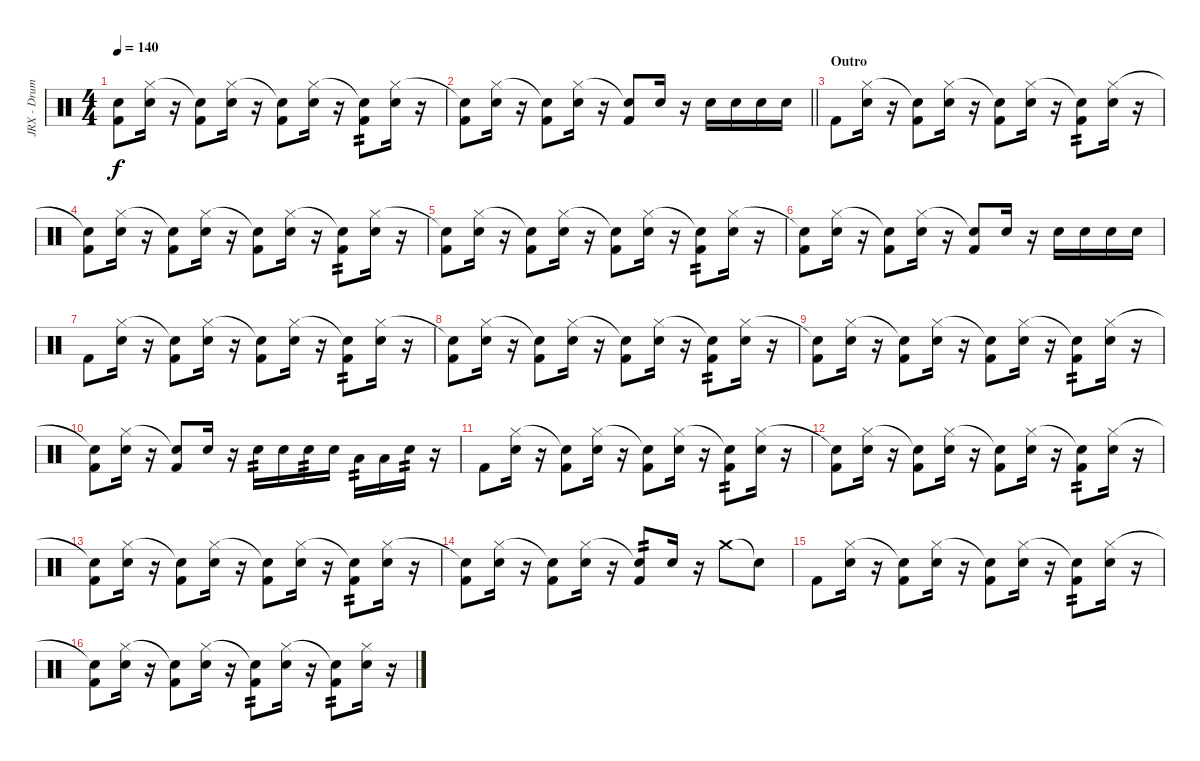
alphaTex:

\track ("JRX - Drum" "JRX - Drum") {instrument percussion}
\staff {score}
\articulation defaults
\ts (4 4)
\tempo 140
\clef neutral
\ks c
("Snare (hit)"{t} "Kick (hit) 2").8{dy f} ("Hi-Hat (closed)" "Electric Snare (hit)").16 r.16 ("Snare (hit)"{t} "Kick (hit) 2").8 ("Hi-Hat (closed)" "Electric Snare (hit)").16 r.16 ("Snare (hit)"{t} "Kick (hit) 2").8 ("Hi-Hat (closed)" "Electric Snare (hit)").16 r.16 ("Snare (hit)"{t} "Kick (hit) 2").8{tp 2} ("Hi-Hat (closed)" "Electric Snare (hit)").16 r.16 |
\barLineRight lightlight
("Snare (hit)"{t} "Kick (hit) 2").8 ("Hi-Hat (closed)" "Electric Snare (hit)").16 r.16 ("Snare (hit)"{t} "Kick (hit) 2").8 ("Hi-Hat (closed)" "Electric Snare (hit)").16 r.16 ("Snare (hit)"{t} "Kick (hit) 2").8 "Electric Snare (hit)".16 r.16 "Electric Snare (hit)".16 "Electric Snare (hit)".16 "Electric Snare (hit)".16 "Electric Snare (hit)".16 |
\section ("" "Outro")
"Kick (hit) 2".8 ("Hi-Hat (closed)" "Electric Snare (hit)").16 r.16 ("Snare (hit)"{t} "Kick (hit) 2").8 ("Hi-Hat (closed)" "Electric Snare (hit)").16 r.16 ("Snare (hit)"{t} "Kick (hit) 2").8 ("Hi-Hat (closed)" "Electric Snare (hit)").16 r.16 ("Snare (hit)"{t} "Kick (hit) 2").8{tp 2} ("Hi-Hat (closed)" "Electric Snare (hit)").16 r.16 |
("Snare (hit)"{t} "Kick (hit) 2").8 ("Hi-Hat (closed)" "Electric Snare (hit)").16 r.16 ("Snare (hit)"{t} "Kick (hit) 2").8 ("Hi-Hat (closed)" "Electric Snare (hit)").16 r.16 ("Snare (hit)"{t} "Kick (hit) 2").8 ("Hi-Hat (closed)" "Electric Snare (hit)").16 r.16 ("Snare (hit)"{t} "Kick (hit) 2").8{tp 2} ("Hi-Hat (closed)" "Electric Snare (hit)").16 r.16 |
("Snare (hit)"{t} "Kick (hit) 2").8 ("Hi-Hat (closed)" "Electric Snare (hit)").16 r.16 ("Snare (hit)"{t} "Kick (hit) 2").8 ("Hi-Hat (closed)" "Electric Snare (hit)").16 r.16 ("Snare (hit)"{t} "Kick (hit) 2").8 ("Hi-Hat (closed)" "Electric Snare (hit)").16 r.16 ("Snare (hit)"{t} "Kick (hit) 2").8{tp 2} ("Hi-Hat (closed)" "Electric Snare (hit)").16 r.16 |
("Snare (hit)"{t} "Kick (hit) 2").8 ("Hi-Hat (closed)" "Electric Snare (hit)").16 r.16 ("Snare (hit)"{t} "Kick (hit) 2").8 ("Hi-Hat (closed)" "Electric Snare (hit)").16 r.16 ("Snare (hit)"{t} "Kick (hit) 2").8 "Electric Snare (hit)".16 r.16 "Electric Snare (hit)".16 "Electric Snare (hit)".16 "Electric Snare (hit)".16 "Electric Snare (hit)".16 |
"Kick (hit) 2".8 ("Hi-Hat (closed)" "Electric Snare (hit)").16 r.16 ("Snare (hit)"{t} "Kick (hit) 2").8 ("Hi-Hat (closed)" "Electric Snare (hit)").16 r.16 ("Snare (hit)"{t} "Kick (hit) 2").8 ("Hi-Hat (closed)" "Electric Snare (hit)").16 r.16 ("Snare (hit)"{t} "Kick (hit) 2").8{tp 2} ("Hi-Hat (closed)" "Electric Snare (hit)").16 r.16 |
("Snare (hit)"{t} "Kick (hit) 2").8 ("Hi-Hat (closed)" "Electric Snare (hit)").16 r.16 ("Snare (hit)"{t} "Kick (hit) 2").8 ("Hi-Hat (closed)" "Electric Snare (hit)").16 r.16 ("Snare (hit)"{t} "Kick (hit) 2").8 ("Hi-Hat (closed)" "Electric Snare (hit)").16 r.16 ("Snare (hit)"{t} "Kick (hit) 2").8{tp 2} ("Hi-Hat (closed)" "Electric Snare (hit)").16 r.16 |
("Snare (hit)"{t} "Kick (hit) 2").8 ("Hi-Hat (closed)" "Electric Snare (hit)").16 r.16 ("Snare (hit)"{t} "Kick (hit) 2").8 ("Hi-Hat (closed)" "Electric Snare (hit)").16 r.16 ("Snare (hit)"{t} "Kick (hit) 2").8 ("Hi-Hat (closed)" "Electric Snare (hit)").16 r.16 ("Snare (hit)"{t} "Kick (hit) 2").8{tp 2} ("Hi-Hat (closed)" "Electric Snare (hit)").16 r.16 |
("Snare (hit)"{t} "Kick (hit) 2").8 ("Hi-Hat (closed)" "Electric Snare (hit)").16 r.16 ("Snare (hit)"{t} "Kick (hit) 2").8 "Electric Snare (hit)".16 r.16 "Electric Snare (hit)".16{tp 2} "Electric Snare (hit)".16 "Electric Snare (hit)".16{tp 2} "Electric Snare (hit)".16 "Low Floor Tom (hit)".16{tp 2} "Low Floor Tom (hit)".16 "Electric Snare (hit)".16{tp 2} r.16 |
"Kick (hit) 2".8 ("Hi-Hat (closed)" "Electric Snare (hit)").16 r.16 ("Snare (hit)"{t} "Kick (hit) 2").8 ("Hi-Hat (closed)" "Electric Snare (hit)").16 r.16 ("Snare (hit)"{t} "Kick (hit) 2").8 ("Hi-Hat (closed)" "Electric Snare (hit)").16 r.16 ("Snare (hit)"{t} "Kick (hit) 2").8{tp 2} ("Hi-Hat (closed)" "Electric Snare (hit)").16 r.16 |
("Snare (hit)"{t} "Kick (hit) 2").8 ("Hi-Hat (closed)" "Electric Snare (hit)").16 r.16 ("Snare (hit)"{t} "Kick (hit) 2").8 ("Hi-Hat (closed)" "Electric Snare (hit)").16 r.16 ("Snare (hit)"{t} "Kick (hit) 2").8 ("Hi-Hat (closed)" "Electric Snare (hit)").16 r.16 ("Snare (hit)"{t} "Kick (hit) 2").8{tp 2} ("Hi-Hat (closed)" "Electric Snare (hit)").16 r.16 |
("Snare (hit)"{t} "Kick (hit) 2").8 ("Hi-Hat (closed)" "Electric Snare (hit)").16 r.16 ("Snare (hit)"{t} "Kick (hit) 2").8 ("Hi-Hat (closed)" "Electric Snare (hit)").16 r.16 ("Snare (hit)"{t} "Kick (hit) 2").8 ("Hi-Hat (closed)" "Electric Snare (hit)").16 r.16 ("Snare (hit)"{t} "Kick (hit) 2").8{tp 2} ("Hi-Hat (closed)" "Electric Snare (hit)").16 r.16 |
("Snare (hit)"{t} "Kick (hit) 2").8 ("Hi-Hat (closed)" "Electric Snare (hit)").16 r.16 ("Snare (hit)"{t} "Kick (hit) 2").8 ("Hi-Hat (closed)" "Electric Snare (hit)").16 r.16 ("Snare (hit)"{t} "Kick (hit) 2").8{tp 2} "Electric Snare (hit)".16 r.16 "Crash medium (hit)".8 "Snare (hit)"{t}.8 |
"Kick (hit) 2".8 ("Hi-Hat (closed)" "Electric Snare (hit)").16 r.16 ("Snare (hit)"{t} "Kick (hit) 2").8 ("Hi-Hat (closed)" "Electric Snare (hit)").16 r.16 ("Snare (hit)"{t} "Kick (hit) 2").8 ("Hi-Hat (closed)" "Electric Snare (hit)").16 r.16 ("Snare (hit)"{t} "Kick (hit) 2").8{tp 2} ("Hi-Hat (closed)" "Electric Snare (hit)").16 r.16 |
("Snare (hit)"{t} "Kick (hit) 2").8 ("Hi-Hat (closed)" "Electric Snare (hit)").16 r.16 ("Snare (hit)"{t} "Kick (hit) 2").8 ("Hi-Hat (closed)" "Electric Snare (hit)").16 r.16 ("Snare (hit)"{t} "Kick (hit) 2").8{tp 2} ("Hi-Hat (closed)" "Electric Snare (hit)").16 r.16 ("Snare (hit)"{t} "Kick (hit) 2").8{tp 2} ("Hi-Hat (closed)" "Electric Snare (hit)").16 r.16
